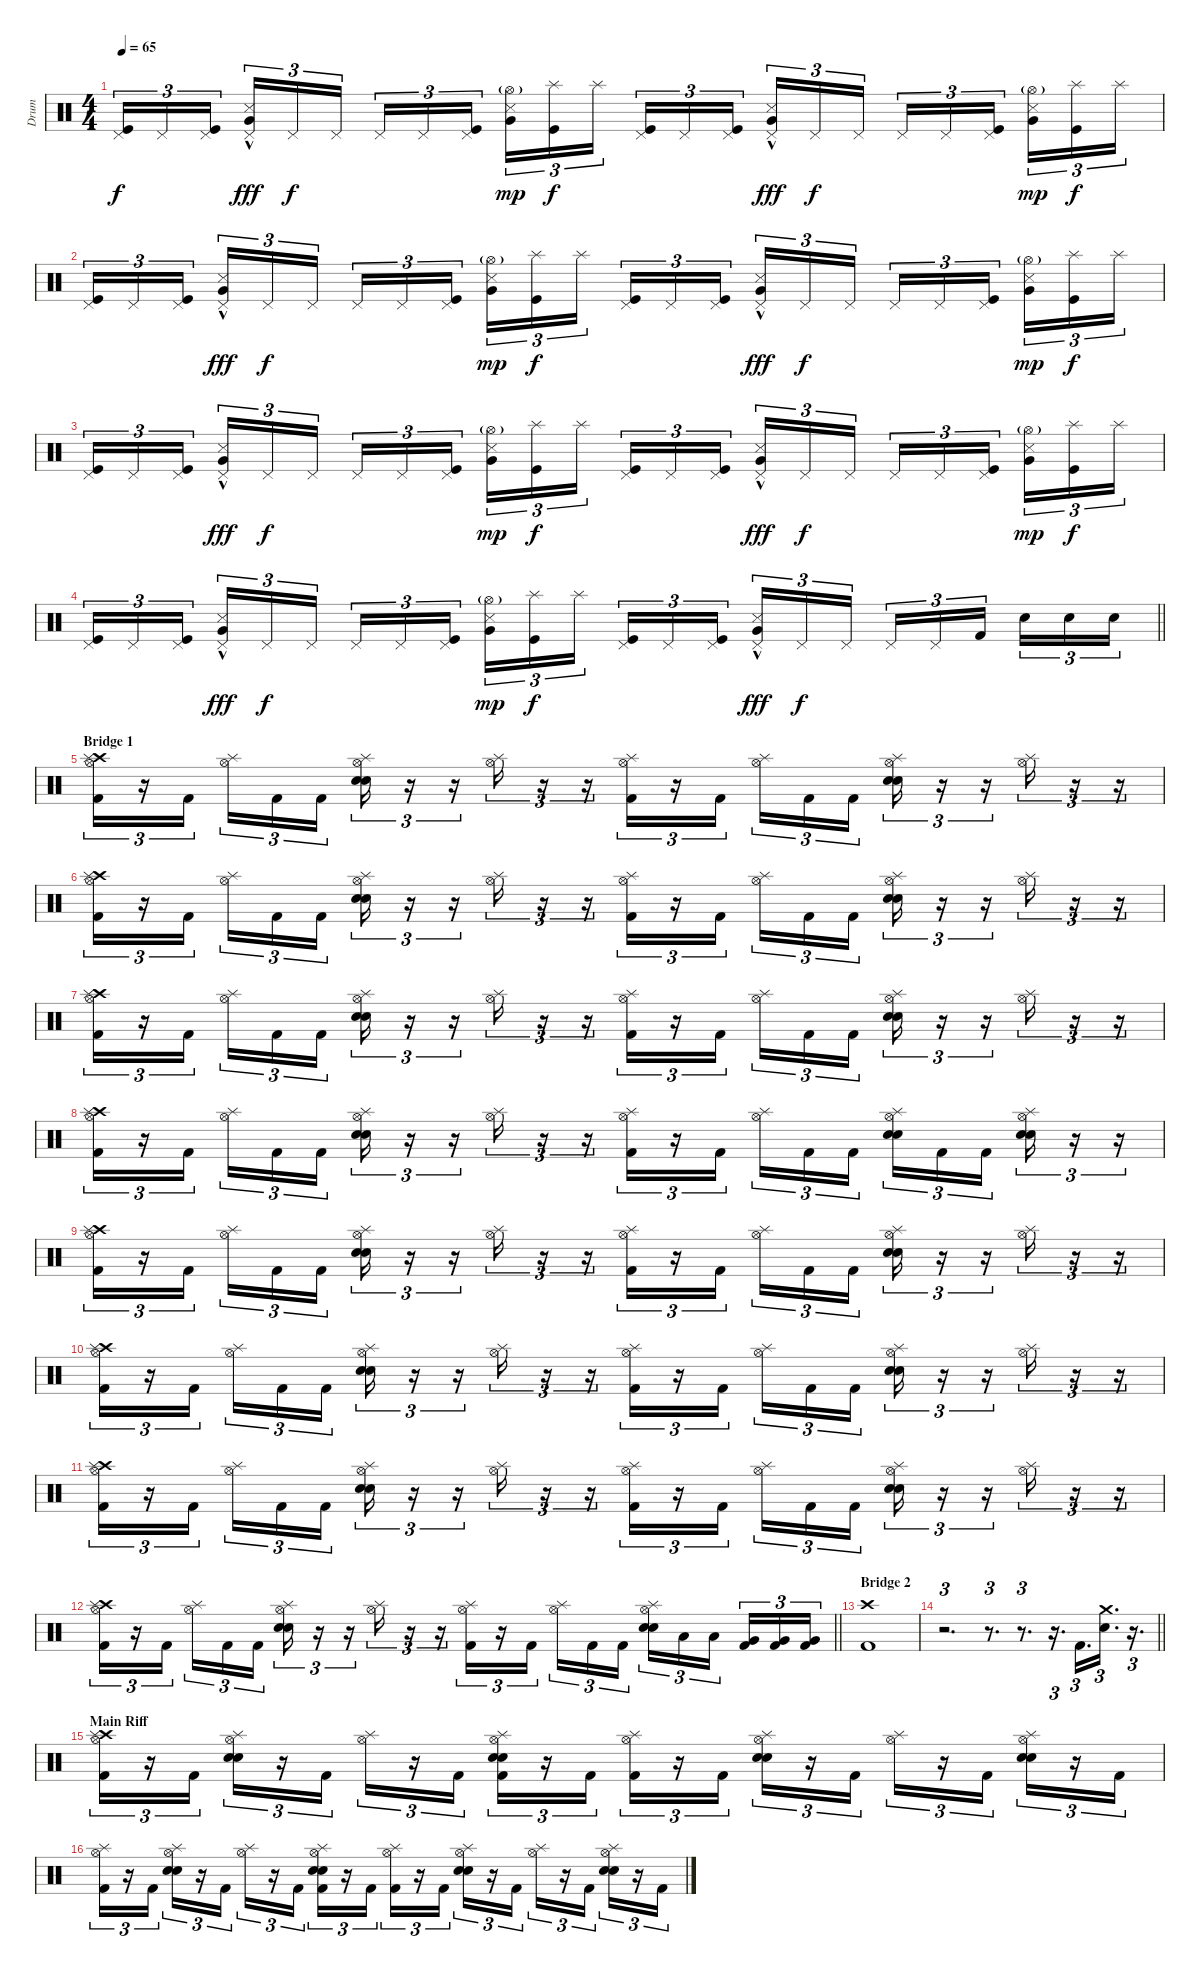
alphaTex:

\track ("Drum" "Drum") {instrument percussion}
\staff {score}
\articulation defaults
\ts (4 4)
\tempo 65
\clef neutral
\ks c
("Kick (hit)" "Pedal Hi-Hat (hit)").16{tu (3 2) dy f} "Pedal Hi-Hat (hit)".16{tu (3 2)} ("Kick (hit)" "Pedal Hi-Hat (hit)").16{tu (3 2) beam splitsecondary} ("Snare (side stick) 3" "Very Low Tom (hit)" "Pedal Hi-Hat (hit)"{hac}).16{tu (3 2) dy fff} "Pedal Hi-Hat (hit)".16{tu (3 2) dy f} "Pedal Hi-Hat (hit)".16{tu (3 2)} "Pedal Hi-Hat (hit)".16{tu (3 2)} "Pedal Hi-Hat (hit)".16{tu (3 2)} ("Kick (hit)" "Pedal Hi-Hat (hit)").16{tu (3 2) beam splitsecondary} ("Snare (side stick) 3" "Very Low Tom (hit)" "Hi-Hat (open)"{g}).16{tu (3 2) dy mp} ("Kick (hit)" "Splash (hit)").16{tu (3 2) dy f} "Splash (hit)".16{tu (3 2)} ("Kick (hit)" "Pedal Hi-Hat (hit)").16{tu (3 2)} "Pedal Hi-Hat (hit)".16{tu (3 2)} ("Kick (hit)" "Pedal Hi-Hat (hit)").16{tu (3 2) beam splitsecondary} ("Snare (side stick) 3" "Very Low Tom (hit)" "Pedal Hi-Hat (hit)"{hac}).16{tu (3 2) dy fff} "Pedal Hi-Hat (hit)".16{tu (3 2) dy f} "Pedal Hi-Hat (hit)".16{tu (3 2)} "Pedal Hi-Hat (hit)".16{tu (3 2)} "Pedal Hi-Hat (hit)".16{tu (3 2)} ("Kick (hit)" "Pedal Hi-Hat (hit)").16{tu (3 2) beam splitsecondary} ("Snare (side stick) 3" "Very Low Tom (hit)" "Hi-Hat (open)"{g}).16{tu (3 2) dy mp} ("Kick (hit)" "Splash (hit)").16{tu (3 2) dy f} "Splash (hit)".16{tu (3 2)} |
("Kick (hit)" "Pedal Hi-Hat (hit)").16{tu (3 2)} "Pedal Hi-Hat (hit)".16{tu (3 2)} ("Kick (hit)" "Pedal Hi-Hat (hit)").16{tu (3 2) beam splitsecondary} ("Snare (side stick) 3" "Very Low Tom (hit)" "Pedal Hi-Hat (hit)"{hac}).16{tu (3 2) dy fff} "Pedal Hi-Hat (hit)".16{tu (3 2) dy f} "Pedal Hi-Hat (hit)".16{tu (3 2)} "Pedal Hi-Hat (hit)".16{tu (3 2)} "Pedal Hi-Hat (hit)".16{tu (3 2)} ("Kick (hit)" "Pedal Hi-Hat (hit)").16{tu (3 2) beam splitsecondary} ("Snare (side stick) 3" "Very Low Tom (hit)" "Hi-Hat (open)"{g}).16{tu (3 2) dy mp} ("Kick (hit)" "Splash (hit)").16{tu (3 2) dy f} "Splash (hit)".16{tu (3 2)} ("Kick (hit)" "Pedal Hi-Hat (hit)").16{tu (3 2)} "Pedal Hi-Hat (hit)".16{tu (3 2)} ("Kick (hit)" "Pedal Hi-Hat (hit)").16{tu (3 2) beam splitsecondary} ("Snare (side stick) 3" "Very Low Tom (hit)" "Pedal Hi-Hat (hit)"{hac}).16{tu (3 2) dy fff} "Pedal Hi-Hat (hit)".16{tu (3 2) dy f} "Pedal Hi-Hat (hit)".16{tu (3 2)} "Pedal Hi-Hat (hit)".16{tu (3 2)} "Pedal Hi-Hat (hit)".16{tu (3 2)} ("Kick (hit)" "Pedal Hi-Hat (hit)").16{tu (3 2) beam splitsecondary} ("Snare (side stick) 3" "Very Low Tom (hit)" "Hi-Hat (open)"{g}).16{tu (3 2) dy mp} ("Kick (hit)" "Splash (hit)").16{tu (3 2) dy f} "Splash (hit)".16{tu (3 2)} |
("Kick (hit)" "Pedal Hi-Hat (hit)").16{tu (3 2)} "Pedal Hi-Hat (hit)".16{tu (3 2)} ("Kick (hit)" "Pedal Hi-Hat (hit)").16{tu (3 2) beam splitsecondary} ("Snare (side stick) 3" "Very Low Tom (hit)" "Pedal Hi-Hat (hit)"{hac}).16{tu (3 2) dy fff} "Pedal Hi-Hat (hit)".16{tu (3 2) dy f} "Pedal Hi-Hat (hit)".16{tu (3 2)} "Pedal Hi-Hat (hit)".16{tu (3 2)} "Pedal Hi-Hat (hit)".16{tu (3 2)} ("Kick (hit)" "Pedal Hi-Hat (hit)").16{tu (3 2) beam splitsecondary} ("Snare (side stick) 3" "Very Low Tom (hit)" "Hi-Hat (open)"{g}).16{tu (3 2) dy mp} ("Kick (hit)" "Splash (hit)").16{tu (3 2) dy f} "Splash (hit)".16{tu (3 2)} ("Kick (hit)" "Pedal Hi-Hat (hit)").16{tu (3 2)} "Pedal Hi-Hat (hit)".16{tu (3 2)} ("Kick (hit)" "Pedal Hi-Hat (hit)").16{tu (3 2) beam splitsecondary} ("Snare (side stick) 3" "Very Low Tom (hit)" "Pedal Hi-Hat (hit)"{hac}).16{tu (3 2) dy fff} "Pedal Hi-Hat (hit)".16{tu (3 2) dy f} "Pedal Hi-Hat (hit)".16{tu (3 2)} "Pedal Hi-Hat (hit)".16{tu (3 2)} "Pedal Hi-Hat (hit)".16{tu (3 2)} ("Kick (hit)" "Pedal Hi-Hat (hit)").16{tu (3 2) beam splitsecondary} ("Snare (side stick) 3" "Very Low Tom (hit)" "Hi-Hat (open)"{g}).16{tu (3 2) dy mp} ("Kick (hit)" "Splash (hit)").16{tu (3 2) dy f} "Splash (hit)".16{tu (3 2)} |
\barLineRight lightlight
("Kick (hit)" "Pedal Hi-Hat (hit)").16{tu (3 2)} "Pedal Hi-Hat (hit)".16{tu (3 2)} ("Kick (hit)" "Pedal Hi-Hat (hit)").16{tu (3 2) beam splitsecondary} ("Snare (side stick) 3" "Very Low Tom (hit)" "Pedal Hi-Hat (hit)"{hac}).16{tu (3 2) dy fff} "Pedal Hi-Hat (hit)".16{tu (3 2) dy f} "Pedal Hi-Hat (hit)".16{tu (3 2)} "Pedal Hi-Hat (hit)".16{tu (3 2)} "Pedal Hi-Hat (hit)".16{tu (3 2)} ("Kick (hit)" "Pedal Hi-Hat (hit)").16{tu (3 2) beam splitsecondary} ("Snare (side stick) 3" "Very Low Tom (hit)" "Hi-Hat (open)"{g}).16{tu (3 2) dy mp} ("Kick (hit)" "Splash (hit)").16{tu (3 2) dy f} "Splash (hit)".16{tu (3 2)} ("Kick (hit)" "Pedal Hi-Hat (hit)").16{tu (3 2)} "Pedal Hi-Hat (hit)".16{tu (3 2)} ("Kick (hit)" "Pedal Hi-Hat (hit)").16{tu (3 2) beam splitsecondary} ("Snare (side stick) 3" "Very Low Tom (hit)" "Pedal Hi-Hat (hit)"{hac}).16{tu (3 2) dy fff} "Pedal Hi-Hat (hit)".16{tu (3 2) dy f} "Pedal Hi-Hat (hit)".16{tu (3 2)} "Pedal Hi-Hat (hit)".16{tu (3 2)} "Pedal Hi-Hat (hit)".16{tu (3 2)} "Kick (hit) 2".16{tu (3 2) beam splitsecondary} "Electric Snare (hit)".16{tu (3 2)} "Electric Snare (hit)".16{tu (3 2)} "Electric Snare (hit)".16{tu (3 2)} |
\section ("" "Bridge 1")
("Hi-Hat (open)" "Crash high (hit)" "Kick (hit) 2" "Splash (hit)").16{tu (3 2)} r.16{tu (3 2)} "Kick (hit) 2".16{tu (3 2) beam splitsecondary} ("Hi-Hat (open)" "Splash (hit)").16{tu (3 2)} "Kick (hit) 2".16{tu (3 2)} "Kick (hit) 2".16{tu (3 2)} ("Hi-Hat (open)" "Electric Snare (hit)" "Electric Snare (hit)" "Splash (hit)").16{tu (3 2)} r.16{tu (3 2)} r.16{tu (3 2)} ("Hi-Hat (open)" "Splash (hit)").16{tu (3 2)} r.16{tu (3 2)} r.16{tu (3 2)} ("Hi-Hat (open)" "Kick (hit) 2" "Splash (hit)").16{tu (3 2)} r.16{tu (3 2)} "Kick (hit) 2".16{tu (3 2) beam splitsecondary} ("Hi-Hat (open)" "Splash (hit)").16{tu (3 2)} "Kick (hit) 2".16{tu (3 2)} "Kick (hit) 2".16{tu (3 2)} ("Hi-Hat (open)" "Electric Snare (hit)" "Electric Snare (hit)" "Splash (hit)").16{tu (3 2)} r.16{tu (3 2)} r.16{tu (3 2)} ("Hi-Hat (open)" "Splash (hit)").16{tu (3 2)} r.16{tu (3 2)} r.16{tu (3 2)} |
("Hi-Hat (open)" "Crash high (hit)" "Kick (hit) 2" "Splash (hit)").16{tu (3 2)} r.16{tu (3 2)} "Kick (hit) 2".16{tu (3 2) beam splitsecondary} ("Hi-Hat (open)" "Splash (hit)").16{tu (3 2)} "Kick (hit) 2".16{tu (3 2)} "Kick (hit) 2".16{tu (3 2)} ("Hi-Hat (open)" "Electric Snare (hit)" "Electric Snare (hit)" "Splash (hit)").16{tu (3 2)} r.16{tu (3 2)} r.16{tu (3 2)} ("Hi-Hat (open)" "Splash (hit)").16{tu (3 2)} r.16{tu (3 2)} r.16{tu (3 2)} ("Hi-Hat (open)" "Kick (hit) 2" "Splash (hit)").16{tu (3 2)} r.16{tu (3 2)} "Kick (hit) 2".16{tu (3 2) beam splitsecondary} ("Hi-Hat (open)" "Splash (hit)").16{tu (3 2)} "Kick (hit) 2".16{tu (3 2)} "Kick (hit) 2".16{tu (3 2)} ("Hi-Hat (open)" "Electric Snare (hit)" "Electric Snare (hit)" "Splash (hit)").16{tu (3 2)} r.16{tu (3 2)} r.16{tu (3 2)} ("Hi-Hat (open)" "Splash (hit)").16{tu (3 2)} r.16{tu (3 2)} r.16{tu (3 2)} |
("Hi-Hat (open)" "Crash high (hit)" "Kick (hit) 2" "Splash (hit)").16{tu (3 2)} r.16{tu (3 2)} "Kick (hit) 2".16{tu (3 2) beam splitsecondary} ("Hi-Hat (open)" "Splash (hit)").16{tu (3 2)} "Kick (hit) 2".16{tu (3 2)} "Kick (hit) 2".16{tu (3 2)} ("Hi-Hat (open)" "Electric Snare (hit)" "Electric Snare (hit)" "Splash (hit)").16{tu (3 2)} r.16{tu (3 2)} r.16{tu (3 2)} ("Hi-Hat (open)" "Splash (hit)").16{tu (3 2)} r.16{tu (3 2)} r.16{tu (3 2)} ("Hi-Hat (open)" "Kick (hit) 2" "Splash (hit)").16{tu (3 2)} r.16{tu (3 2)} "Kick (hit) 2".16{tu (3 2) beam splitsecondary} ("Hi-Hat (open)" "Splash (hit)").16{tu (3 2)} "Kick (hit) 2".16{tu (3 2)} "Kick (hit) 2".16{tu (3 2)} ("Hi-Hat (open)" "Electric Snare (hit)" "Electric Snare (hit)" "Splash (hit)").16{tu (3 2)} r.16{tu (3 2)} r.16{tu (3 2)} ("Hi-Hat (open)" "Splash (hit)").16{tu (3 2)} r.16{tu (3 2)} r.16{tu (3 2)} |
("Hi-Hat (open)" "Crash high (hit)" "Kick (hit) 2" "Splash (hit)").16{tu (3 2)} r.16{tu (3 2)} "Kick (hit) 2".16{tu (3 2) beam splitsecondary} ("Hi-Hat (open)" "Splash (hit)").16{tu (3 2)} "Kick (hit) 2".16{tu (3 2)} "Kick (hit) 2".16{tu (3 2)} ("Hi-Hat (open)" "Electric Snare (hit)" "Electric Snare (hit)" "Splash (hit)").16{tu (3 2)} r.16{tu (3 2)} r.16{tu (3 2)} ("Hi-Hat (open)" "Splash (hit)").16{tu (3 2)} r.16{tu (3 2)} r.16{tu (3 2)} ("Hi-Hat (open)" "Kick (hit) 2" "Splash (hit)").16{tu (3 2)} r.16{tu (3 2)} "Kick (hit) 2".16{tu (3 2) beam splitsecondary} ("Hi-Hat (open)" "Splash (hit)").16{tu (3 2)} "Kick (hit) 2".16{tu (3 2)} "Kick (hit) 2".16{tu (3 2)} ("Hi-Hat (open)" "Electric Snare (hit)" "Electric Snare (hit)" "Splash (hit)").16{tu (3 2)} "Kick (hit) 2".16{tu (3 2)} "Kick (hit) 2".16{tu (3 2) beam splitsecondary} ("Hi-Hat (open)" "Electric Snare (hit)" "Electric Snare (hit)" "Splash (hit)").16{tu (3 2)} r.16{tu (3 2)} r.16{tu (3 2)} |
("Hi-Hat (open)" "Crash high (hit)" "Kick (hit) 2" "Splash (hit)").16{tu (3 2)} r.16{tu (3 2)} "Kick (hit) 2".16{tu (3 2) beam splitsecondary} ("Hi-Hat (open)" "Splash (hit)").16{tu (3 2)} "Kick (hit) 2".16{tu (3 2)} "Kick (hit) 2".16{tu (3 2)} ("Hi-Hat (open)" "Electric Snare (hit)" "Electric Snare (hit)" "Splash (hit)").16{tu (3 2)} r.16{tu (3 2)} r.16{tu (3 2)} ("Hi-Hat (open)" "Splash (hit)").16{tu (3 2)} r.16{tu (3 2)} r.16{tu (3 2)} ("Hi-Hat (open)" "Kick (hit) 2" "Splash (hit)").16{tu (3 2)} r.16{tu (3 2)} "Kick (hit) 2".16{tu (3 2) beam splitsecondary} ("Hi-Hat (open)" "Splash (hit)").16{tu (3 2)} "Kick (hit) 2".16{tu (3 2)} "Kick (hit) 2".16{tu (3 2)} ("Hi-Hat (open)" "Electric Snare (hit)" "Electric Snare (hit)" "Splash (hit)").16{tu (3 2)} r.16{tu (3 2)} r.16{tu (3 2)} ("Hi-Hat (open)" "Splash (hit)").16{tu (3 2)} r.16{tu (3 2)} r.16{tu (3 2)} |
("Hi-Hat (open)" "Crash high (hit)" "Kick (hit) 2" "Splash (hit)").16{tu (3 2)} r.16{tu (3 2)} "Kick (hit) 2".16{tu (3 2) beam splitsecondary} ("Hi-Hat (open)" "Splash (hit)").16{tu (3 2)} "Kick (hit) 2".16{tu (3 2)} "Kick (hit) 2".16{tu (3 2)} ("Hi-Hat (open)" "Electric Snare (hit)" "Electric Snare (hit)" "Splash (hit)").16{tu (3 2)} r.16{tu (3 2)} r.16{tu (3 2)} ("Hi-Hat (open)" "Splash (hit)").16{tu (3 2)} r.16{tu (3 2)} r.16{tu (3 2)} ("Hi-Hat (open)" "Kick (hit) 2" "Splash (hit)").16{tu (3 2)} r.16{tu (3 2)} "Kick (hit) 2".16{tu (3 2) beam splitsecondary} ("Hi-Hat (open)" "Splash (hit)").16{tu (3 2)} "Kick (hit) 2".16{tu (3 2)} "Kick (hit) 2".16{tu (3 2)} ("Hi-Hat (open)" "Electric Snare (hit)" "Electric Snare (hit)" "Splash (hit)").16{tu (3 2)} r.16{tu (3 2)} r.16{tu (3 2)} ("Hi-Hat (open)" "Splash (hit)").16{tu (3 2)} r.16{tu (3 2)} r.16{tu (3 2)} |
("Hi-Hat (open)" "Crash high (hit)" "Kick (hit) 2" "Splash (hit)").16{tu (3 2)} r.16{tu (3 2)} "Kick (hit) 2".16{tu (3 2) beam splitsecondary} ("Hi-Hat (open)" "Splash (hit)").16{tu (3 2)} "Kick (hit) 2".16{tu (3 2)} "Kick (hit) 2".16{tu (3 2)} ("Hi-Hat (open)" "Electric Snare (hit)" "Electric Snare (hit)" "Splash (hit)").16{tu (3 2)} r.16{tu (3 2)} r.16{tu (3 2)} ("Hi-Hat (open)" "Splash (hit)").16{tu (3 2)} r.16{tu (3 2)} r.16{tu (3 2)} ("Hi-Hat (open)" "Kick (hit) 2" "Splash (hit)").16{tu (3 2)} r.16{tu (3 2)} "Kick (hit) 2".16{tu (3 2) beam splitsecondary} ("Hi-Hat (open)" "Splash (hit)").16{tu (3 2)} "Kick (hit) 2".16{tu (3 2)} "Kick (hit) 2".16{tu (3 2)} ("Hi-Hat (open)" "Electric Snare (hit)" "Electric Snare (hit)" "Splash (hit)").16{tu (3 2)} r.16{tu (3 2)} r.16{tu (3 2)} ("Hi-Hat (open)" "Splash (hit)").16{tu (3 2)} r.16{tu (3 2)} r.16{tu (3 2)} |
\barLineRight lightlight
("Hi-Hat (open)" "Crash high (hit)" "Kick (hit) 2" "Splash (hit)").16{tu (3 2)} r.16{tu (3 2)} "Kick (hit) 2".16{tu (3 2) beam splitsecondary} ("Hi-Hat (open)" "Splash (hit)").16{tu (3 2)} "Kick (hit) 2".16{tu (3 2)} "Kick (hit) 2".16{tu (3 2)} ("Hi-Hat (open)" "Electric Snare (hit)" "Electric Snare (hit)" "Splash (hit)").16{tu (3 2)} r.16{tu (3 2)} r.16{tu (3 2)} ("Hi-Hat (open)" "Splash (hit)").16{tu (3 2)} r.16{tu (3 2)} r.16{tu (3 2)} ("Hi-Hat (open)" "Kick (hit) 2" "Splash (hit)").16{tu (3 2)} r.16{tu (3 2)} "Kick (hit) 2".16{tu (3 2) beam splitsecondary} ("Hi-Hat (open)" "Splash (hit)").16{tu (3 2)} "Kick (hit) 2".16{tu (3 2)} "Kick (hit) 2".16{tu (3 2)} ("Hi-Hat (open)" "Electric Snare (hit)" "Electric Snare (hit)" "Splash (hit)").16{tu (3 2)} "Low Tom (hit)".16{tu (3 2)} "Low Tom (hit)".16{tu (3 2) beam splitsecondary} ("Very Low Tom (hit)" "Kick (hit) 2").16{tu (3 2)} ("Very Low Tom (hit)" "Kick (hit) 2").16{tu (3 2)} ("Very Low Tom (hit)" "Kick (hit) 2").16{tu (3 2)} |
\section ("" "Bridge 2")
("Crash high (hit)" "Kick (hit) 2").1 |
\barLineRight lightlight
r.2{d tu (3 2)} r.8{d tu (3 2)} r.8{d tu (3 2)} r.16{d tu (3 2)} "Kick (hit) 2".16{d tu (3 2)} ("Crash medium (hit)" "Electric Snare (hit)").16{d tu (3 2)} r.16{d tu (3 2)} |
\section ("" "Main Riff")
("Hi-Hat (open)" "Crash high (hit)" "Kick (hit) 2" "Splash (hit)").16{tu (3 2)} r.16{tu (3 2)} "Kick (hit) 2".16{tu (3 2)} ("Hi-Hat (open)" "Electric Snare (hit)" "Electric Snare (hit)" "Splash (hit)").16{tu (3 2)} r.16{tu (3 2)} "Kick (hit) 2".16{tu (3 2)} ("Hi-Hat (open)" "Splash (hit)").16{tu (3 2)} r.16{tu (3 2)} "Kick (hit) 2".16{tu (3 2)} ("Hi-Hat (open)" "Electric Snare (hit)" "Electric Snare (hit)" "Kick (hit) 2" "Splash (hit)").16{tu (3 2)} r.16{tu (3 2)} "Kick (hit) 2".16{tu (3 2)} ("Hi-Hat (open)" "Kick (hit) 2" "Splash (hit)").16{tu (3 2)} r.16{tu (3 2)} "Kick (hit) 2".16{tu (3 2)} ("Hi-Hat (open)" "Electric Snare (hit)" "Electric Snare (hit)" "Splash (hit)").16{tu (3 2)} r.16{tu (3 2)} "Kick (hit) 2".16{tu (3 2)} ("Hi-Hat (open)" "Splash (hit)").16{tu (3 2)} r.16{tu (3 2)} "Kick (hit) 2".16{tu (3 2)} ("Hi-Hat (open)" "Electric Snare (hit)" "Electric Snare (hit)" "Splash (hit)").16{tu (3 2)} r.16{tu (3 2)} "Kick (hit) 2".16{tu (3 2)} |
("Hi-Hat (open)" "Kick (hit) 2" "Splash (hit)").16{tu (3 2)} r.16{tu (3 2)} "Kick (hit) 2".16{tu (3 2)} ("Hi-Hat (open)" "Electric Snare (hit)" "Electric Snare (hit)" "Splash (hit)").16{tu (3 2)} r.16{tu (3 2)} "Kick (hit) 2".16{tu (3 2)} ("Hi-Hat (open)" "Splash (hit)").16{tu (3 2)} r.16{tu (3 2)} "Kick (hit) 2".16{tu (3 2)} ("Hi-Hat (open)" "Electric Snare (hit)" "Electric Snare (hit)" "Kick (hit) 2" "Splash (hit)").16{tu (3 2)} r.16{tu (3 2)} "Kick (hit) 2".16{tu (3 2)} ("Hi-Hat (open)" "Kick (hit) 2" "Splash (hit)").16{tu (3 2)} r.16{tu (3 2)} "Kick (hit) 2".16{tu (3 2)} ("Hi-Hat (open)" "Electric Snare (hit)" "Electric Snare (hit)" "Splash (hit)").16{tu (3 2)} r.16{tu (3 2)} "Kick (hit) 2".16{tu (3 2)} ("Hi-Hat (open)" "Splash (hit)").16{tu (3 2)} r.16{tu (3 2)} "Kick (hit) 2".16{tu (3 2)} ("Hi-Hat (open)" "Electric Snare (hit)" "Electric Snare (hit)" "Splash (hit)").16{tu (3 2)} r.16{tu (3 2)} "Kick (hit) 2".16{tu (3 2)}
